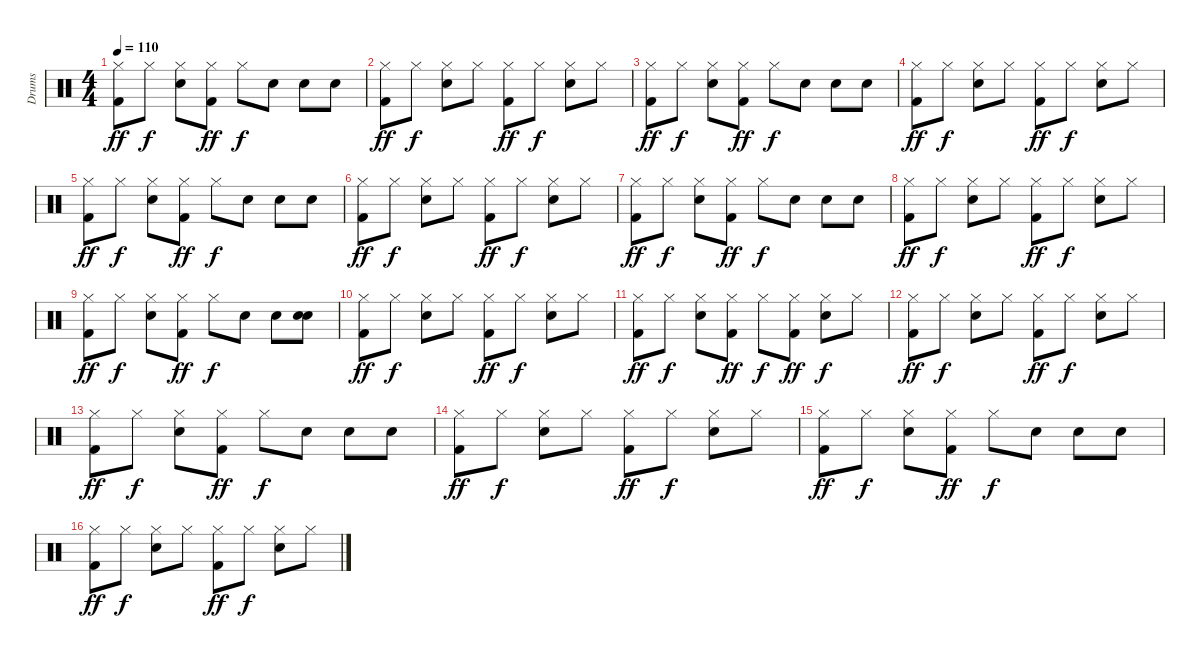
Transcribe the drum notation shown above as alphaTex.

\track ("Drums" "Drums") {instrument percussion}
\staff {score}
\articulation defaults
\ts (4 4)
\tempo 110
\clef neutral
\ks c
("Hi-Hat (closed)" "Kick (hit) 2").8{dy ff} "Hi-Hat (closed)".8{dy f} ("Hi-Hat (closed)" "Electric Snare (hit)").8 ("Hi-Hat (closed)" "Kick (hit) 2").8{dy ff} "Hi-Hat (closed)".8{dy f} "Electric Snare (hit)".8 "Electric Snare (hit)".8 "Electric Snare (hit)".8 |
("Hi-Hat (closed)" "Kick (hit) 2").8{dy ff} "Hi-Hat (closed)".8{dy f} ("Hi-Hat (closed)" "Electric Snare (hit)").8 "Hi-Hat (closed)".8 ("Hi-Hat (closed)" "Kick (hit) 2").8{dy ff} "Hi-Hat (closed)".8{dy f} ("Hi-Hat (closed)" "Electric Snare (hit)").8 "Hi-Hat (closed)".8 |
("Hi-Hat (closed)" "Kick (hit) 2").8{dy ff} "Hi-Hat (closed)".8{dy f} ("Hi-Hat (closed)" "Electric Snare (hit)").8 ("Hi-Hat (closed)" "Kick (hit) 2").8{dy ff} "Hi-Hat (closed)".8{dy f} "Electric Snare (hit)".8 "Electric Snare (hit)".8 "Electric Snare (hit)".8 |
("Hi-Hat (closed)" "Kick (hit) 2").8{dy ff} "Hi-Hat (closed)".8{dy f} ("Hi-Hat (closed)" "Electric Snare (hit)").8 "Hi-Hat (closed)".8 ("Hi-Hat (closed)" "Kick (hit) 2").8{dy ff} "Hi-Hat (closed)".8{dy f} ("Hi-Hat (closed)" "Electric Snare (hit)").8 "Hi-Hat (closed)".8 |
("Hi-Hat (closed)" "Kick (hit) 2").8{dy ff} "Hi-Hat (closed)".8{dy f} ("Hi-Hat (closed)" "Electric Snare (hit)").8 ("Hi-Hat (closed)" "Kick (hit) 2").8{dy ff} "Hi-Hat (closed)".8{dy f} "Electric Snare (hit)".8 "Electric Snare (hit)".8 "Electric Snare (hit)".8 |
("Hi-Hat (closed)" "Kick (hit) 2").8{dy ff} "Hi-Hat (closed)".8{dy f} ("Hi-Hat (closed)" "Electric Snare (hit)").8 "Hi-Hat (closed)".8 ("Hi-Hat (closed)" "Kick (hit) 2").8{dy ff} "Hi-Hat (closed)".8{dy f} ("Hi-Hat (closed)" "Electric Snare (hit)").8 "Hi-Hat (closed)".8 |
("Hi-Hat (closed)" "Kick (hit) 2").8{dy ff} "Hi-Hat (closed)".8{dy f} ("Hi-Hat (closed)" "Electric Snare (hit)").8 ("Hi-Hat (closed)" "Kick (hit) 2").8{dy ff} "Hi-Hat (closed)".8{dy f} "Electric Snare (hit)".8 "Electric Snare (hit)".8 "Electric Snare (hit)".8 |
("Hi-Hat (closed)" "Kick (hit) 2").8{dy ff} "Hi-Hat (closed)".8{dy f} ("Hi-Hat (closed)" "Electric Snare (hit)").8 "Hi-Hat (closed)".8 ("Hi-Hat (closed)" "Kick (hit) 2").8{dy ff} "Hi-Hat (closed)".8{dy f} ("Hi-Hat (closed)" "Electric Snare (hit)").8 "Hi-Hat (closed)".8 |
("Hi-Hat (closed)" "Kick (hit) 2").8{dy ff} "Hi-Hat (closed)".8{dy f} ("Hi-Hat (closed)" "Electric Snare (hit)").8 ("Hi-Hat (closed)" "Kick (hit) 2").8{dy ff} "Hi-Hat (closed)".8{dy f} "Electric Snare (hit)".8 "Electric Snare (hit)".8 ("Snare (hit)" "Electric Snare (hit)").8 |
("Hi-Hat (closed)" "Kick (hit) 2").8{dy ff} "Hi-Hat (closed)".8{dy f} ("Hi-Hat (closed)" "Electric Snare (hit)").8 "Hi-Hat (closed)".8 ("Hi-Hat (closed)" "Kick (hit) 2").8{dy ff} "Hi-Hat (closed)".8{dy f} ("Hi-Hat (closed)" "Electric Snare (hit)").8 "Hi-Hat (closed)".8 |
("Hi-Hat (closed)" "Kick (hit) 2").8{dy ff} "Hi-Hat (closed)".8{dy f} ("Hi-Hat (closed)" "Electric Snare (hit)").8 ("Hi-Hat (closed)" "Kick (hit) 2").8{dy ff} "Hi-Hat (closed)".8{dy f} ("Hi-Hat (closed)" "Kick (hit) 2").8{dy ff} ("Hi-Hat (closed)" "Electric Snare (hit)").8{dy f} "Hi-Hat (closed)".8 |
("Hi-Hat (closed)" "Kick (hit) 2").8{dy ff} "Hi-Hat (closed)".8{dy f} ("Hi-Hat (closed)" "Electric Snare (hit)").8 "Hi-Hat (closed)".8 ("Hi-Hat (closed)" "Kick (hit) 2").8{dy ff} "Hi-Hat (closed)".8{dy f} ("Hi-Hat (closed)" "Electric Snare (hit)").8 "Hi-Hat (closed)".8 |
("Hi-Hat (closed)" "Kick (hit) 2").8{dy ff} "Hi-Hat (closed)".8{dy f} ("Hi-Hat (closed)" "Electric Snare (hit)").8 ("Hi-Hat (closed)" "Kick (hit) 2").8{dy ff} "Hi-Hat (closed)".8{dy f} "Electric Snare (hit)".8 "Electric Snare (hit)".8 "Electric Snare (hit)".8 |
("Hi-Hat (closed)" "Kick (hit) 2").8{dy ff} "Hi-Hat (closed)".8{dy f} ("Hi-Hat (closed)" "Electric Snare (hit)").8 "Hi-Hat (closed)".8 ("Hi-Hat (closed)" "Kick (hit) 2").8{dy ff} "Hi-Hat (closed)".8{dy f} ("Hi-Hat (closed)" "Electric Snare (hit)").8 "Hi-Hat (closed)".8 |
("Hi-Hat (closed)" "Kick (hit) 2").8{dy ff} "Hi-Hat (closed)".8{dy f} ("Hi-Hat (closed)" "Electric Snare (hit)").8 ("Hi-Hat (closed)" "Kick (hit) 2").8{dy ff} "Hi-Hat (closed)".8{dy f} "Electric Snare (hit)".8 "Electric Snare (hit)".8 "Electric Snare (hit)".8 |
("Hi-Hat (closed)" "Kick (hit) 2").8{dy ff} "Hi-Hat (closed)".8{dy f} ("Hi-Hat (closed)" "Electric Snare (hit)").8 "Hi-Hat (closed)".8 ("Hi-Hat (closed)" "Kick (hit) 2").8{dy ff} "Hi-Hat (closed)".8{dy f} ("Hi-Hat (closed)" "Electric Snare (hit)").8 "Hi-Hat (closed)".8
